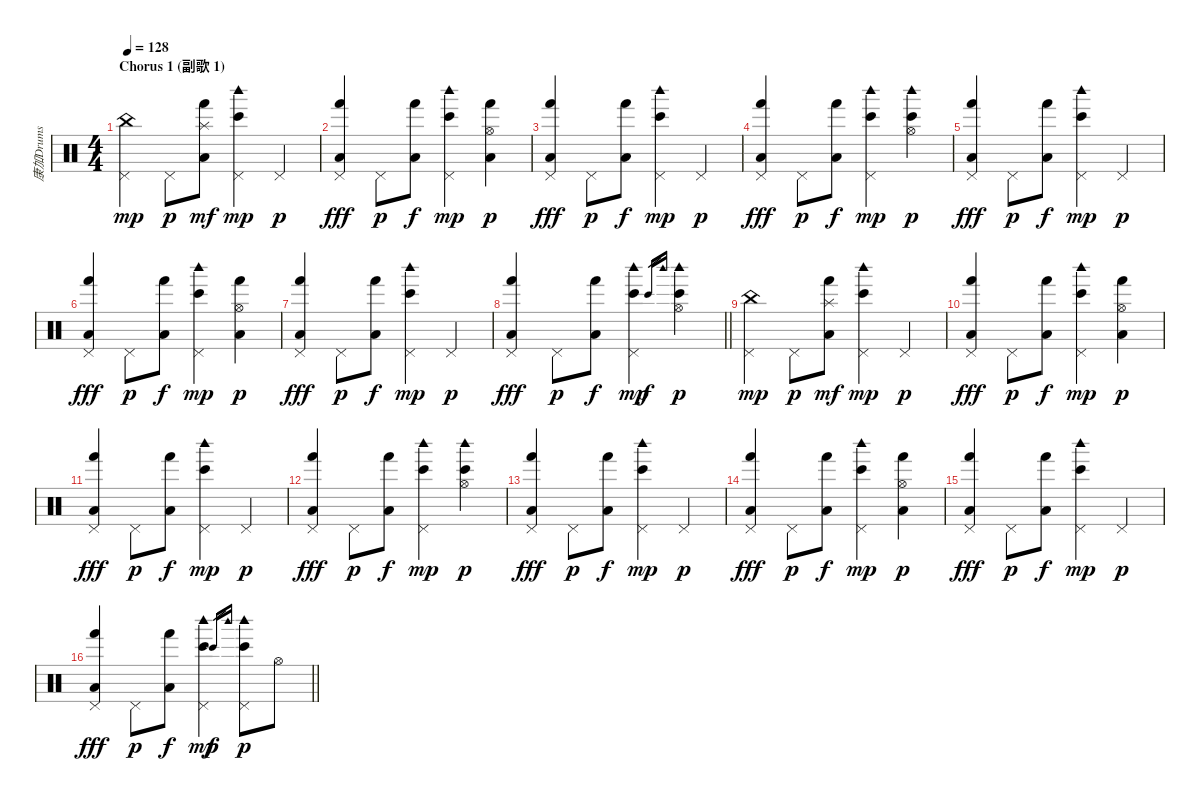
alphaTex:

\track ("康加Drums" "康加Drums") {instrument percussion}
\staff {score}
\articulation defaults
\ts (4 4)
\section ("" "Chorus 1 (副歌 1)")
\tempo 128
\clef neutral
\ks c
("China (hit)" "Pedal Hi-Hat (hit)").4{dy mp} "Pedal Hi-Hat (hit)".8{dy p} ("Splash (hit)" "Hand (hit)" "Low Floor Tom (hit)").8{dy mf} ("Bongo High (hit)" "Woodblock high (hit)" "Pedal Hi-Hat (hit)").4{dy mp} "Pedal Hi-Hat (hit)".4{dy p} |
("Pedal Hi-Hat (hit)" "Hand (hit)" "Low Floor Tom (hit)").4{dy fff} "Pedal Hi-Hat (hit)".8{dy p} ("Hand (hit)" "Low Floor Tom (hit)").8{dy f} ("Bongo High (hit)" "Woodblock high (hit)" "Pedal Hi-Hat (hit)").4{dy mp} ("Hi-Hat (open)" "Hand (hit)" "Low Floor Tom (hit)").4{dy p} |
("Pedal Hi-Hat (hit)" "Hand (hit)" "Low Floor Tom (hit)").4{dy fff} "Pedal Hi-Hat (hit)".8{dy p} ("Hand (hit)" "Low Floor Tom (hit)").8{dy f} ("Bongo High (hit)" "Woodblock high (hit)" "Pedal Hi-Hat (hit)").4{dy mp} "Pedal Hi-Hat (hit)".4{dy p} |
("Pedal Hi-Hat (hit)" "Hand (hit)" "Low Floor Tom (hit)").4{dy fff} "Pedal Hi-Hat (hit)".8{dy p} ("Hand (hit)" "Low Floor Tom (hit)").8{dy f} ("Bongo High (hit)" "Woodblock high (hit)" "Pedal Hi-Hat (hit)").4{dy mp} ("Bongo High (hit)" "Woodblock high (hit)" "Hi-Hat (open)").4{dy p} |
("Pedal Hi-Hat (hit)" "Hand (hit)" "Low Floor Tom (hit)").4{dy fff} "Pedal Hi-Hat (hit)".8{dy p} ("Hand (hit)" "Low Floor Tom (hit)").8{dy f} ("Bongo High (hit)" "Woodblock high (hit)" "Pedal Hi-Hat (hit)").4{dy mp} "Pedal Hi-Hat (hit)".4{dy p} |
("Pedal Hi-Hat (hit)" "Hand (hit)" "Low Floor Tom (hit)").4{dy fff} "Pedal Hi-Hat (hit)".8{dy p} ("Hand (hit)" "Low Floor Tom (hit)").8{dy f} ("Bongo High (hit)" "Woodblock high (hit)" "Pedal Hi-Hat (hit)").4{dy mp} ("Hi-Hat (open)" "Hand (hit)" "Low Floor Tom (hit)").4{dy p} |
("Pedal Hi-Hat (hit)" "Hand (hit)" "Low Floor Tom (hit)").4{dy fff} "Pedal Hi-Hat (hit)".8{dy p} ("Hand (hit)" "Low Floor Tom (hit)").8{dy f} ("Bongo High (hit)" "Woodblock high (hit)" "Pedal Hi-Hat (hit)").4{dy mp} "Pedal Hi-Hat (hit)".4{dy p} |
\barLineRight lightlight
("Pedal Hi-Hat (hit)" "Hand (hit)" "Low Floor Tom (hit)").4{dy fff} "Pedal Hi-Hat (hit)".8{dy p} ("Hand (hit)" "Low Floor Tom (hit)").8{dy f} ("Bongo High (hit)" "Woodblock high (hit)" "Pedal Hi-Hat (hit)").4{dy mp} "Bongo High (hit)".16{gr dy f} "Woodblock high (hit)".16{gr} ("Bongo High (hit)" "Woodblock high (hit)" "Hi-Hat (open)").4{dy p} |
("China (hit)" "Pedal Hi-Hat (hit)").4{dy mp} "Pedal Hi-Hat (hit)".8{dy p} ("Splash (hit)" "Hand (hit)" "Low Floor Tom (hit)").8{dy mf} ("Bongo High (hit)" "Woodblock high (hit)" "Pedal Hi-Hat (hit)").4{dy mp} "Pedal Hi-Hat (hit)".4{dy p} |
("Pedal Hi-Hat (hit)" "Hand (hit)" "Low Floor Tom (hit)").4{dy fff} "Pedal Hi-Hat (hit)".8{dy p} ("Hand (hit)" "Low Floor Tom (hit)").8{dy f} ("Bongo High (hit)" "Woodblock high (hit)" "Pedal Hi-Hat (hit)").4{dy mp} ("Hi-Hat (open)" "Hand (hit)" "Low Floor Tom (hit)").4{dy p} |
("Pedal Hi-Hat (hit)" "Hand (hit)" "Low Floor Tom (hit)").4{dy fff} "Pedal Hi-Hat (hit)".8{dy p} ("Hand (hit)" "Low Floor Tom (hit)").8{dy f} ("Bongo High (hit)" "Woodblock high (hit)" "Pedal Hi-Hat (hit)").4{dy mp} "Pedal Hi-Hat (hit)".4{dy p} |
("Pedal Hi-Hat (hit)" "Hand (hit)" "Low Floor Tom (hit)").4{dy fff} "Pedal Hi-Hat (hit)".8{dy p} ("Hand (hit)" "Low Floor Tom (hit)").8{dy f} ("Bongo High (hit)" "Woodblock high (hit)" "Pedal Hi-Hat (hit)").4{dy mp} ("Bongo High (hit)" "Woodblock high (hit)" "Hi-Hat (open)").4{dy p} |
("Pedal Hi-Hat (hit)" "Hand (hit)" "Low Floor Tom (hit)").4{dy fff} "Pedal Hi-Hat (hit)".8{dy p} ("Hand (hit)" "Low Floor Tom (hit)").8{dy f} ("Bongo High (hit)" "Woodblock high (hit)" "Pedal Hi-Hat (hit)").4{dy mp} "Pedal Hi-Hat (hit)".4{dy p} |
("Pedal Hi-Hat (hit)" "Hand (hit)" "Low Floor Tom (hit)").4{dy fff} "Pedal Hi-Hat (hit)".8{dy p} ("Hand (hit)" "Low Floor Tom (hit)").8{dy f} ("Bongo High (hit)" "Woodblock high (hit)" "Pedal Hi-Hat (hit)").4{dy mp} ("Hi-Hat (open)" "Hand (hit)" "Low Floor Tom (hit)").4{dy p} |
("Pedal Hi-Hat (hit)" "Hand (hit)" "Low Floor Tom (hit)").4{dy fff} "Pedal Hi-Hat (hit)".8{dy p} ("Hand (hit)" "Low Floor Tom (hit)").8{dy f} ("Bongo High (hit)" "Woodblock high (hit)" "Pedal Hi-Hat (hit)").4{dy mp} "Pedal Hi-Hat (hit)".4{dy p} |
\barLineRight lightlight
("Pedal Hi-Hat (hit)" "Hand (hit)" "Low Floor Tom (hit)").4{dy fff} "Pedal Hi-Hat (hit)".8{dy p} ("Hand (hit)" "Low Floor Tom (hit)").8{dy f} ("Bongo High (hit)" "Woodblock high (hit)" "Pedal Hi-Hat (hit)").4{dy mp} "Bongo High (hit)".16{gr dy f} "Woodblock high (hit)".16{gr} ("Bongo High (hit)" "Woodblock high (hit)" "Pedal Hi-Hat (hit)").8{dy p} "Hi-Hat (open)".8
